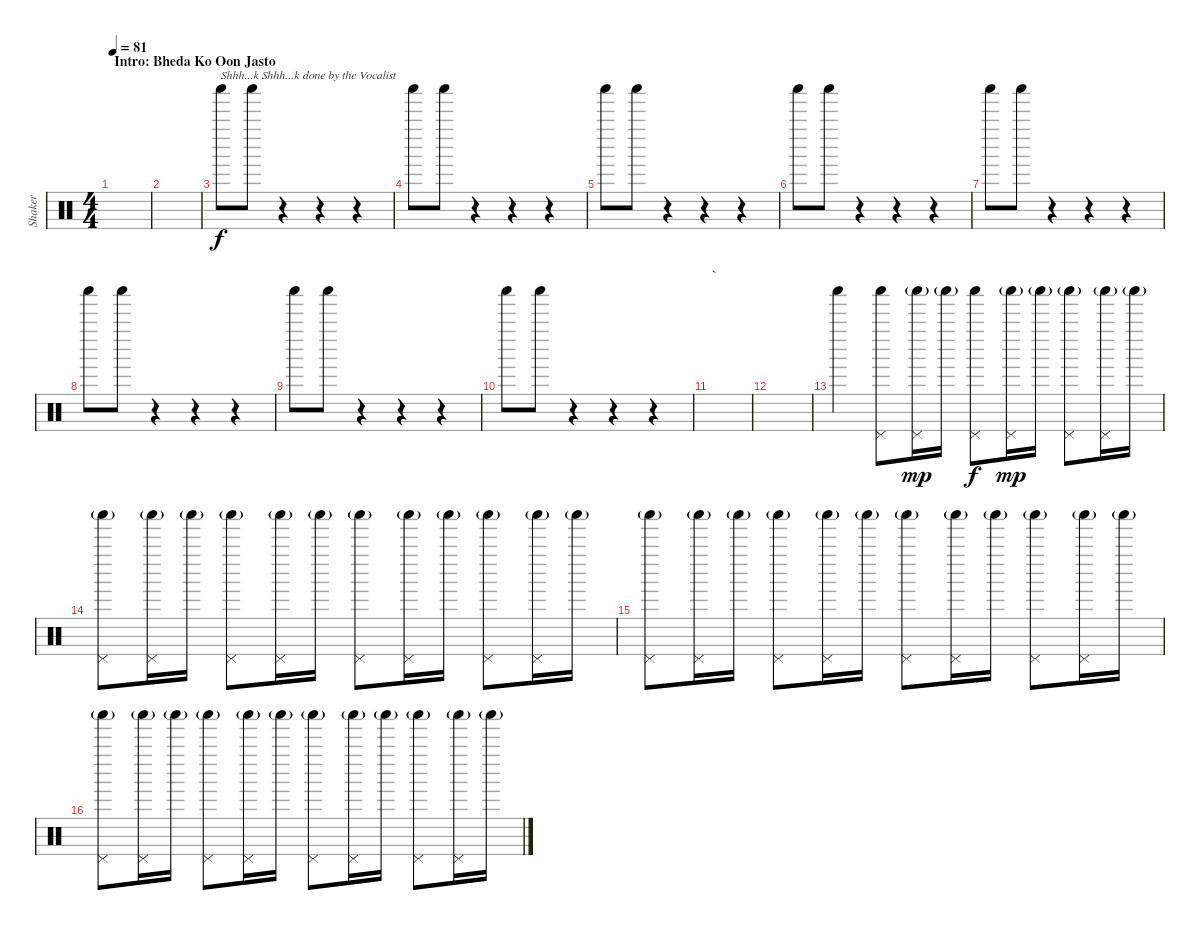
\track ("Shaker" "Shaker") {instrument percussion}
\staff {score}
\articulation defaults
\ts (4 4)
\section ("" "Intro: Bheda Ko Oon Jasto")
\tempo 81
\clef neutral
\ks c
|
|
"Shaker (hit)".8{txt "Shhh...k Shhh...k done by the Vocalist"} "Shaker (hit)".8 r.4 r.4 r.4 |
"Shaker (hit)".8 "Shaker (hit)".8 r.4 r.4 r.4 |
"Shaker (hit)".8 "Shaker (hit)".8 r.4 r.4 r.4 |
"Shaker (hit)".8 "Shaker (hit)".8 r.4 r.4 r.4 |
"Shaker (hit)".8 "Shaker (hit)".8 r.4 r.4 r.4 |
"Shaker (hit)".8 "Shaker (hit)".8 r.4 r.4 r.4 |
"Shaker (hit)".8 "Shaker (hit)".8 r.4 r.4 r.4 |
"Shaker (hit)".8 "Shaker (hit)".8 r.4 r.4 r.4 |
\section ("" "`")
|
|
"Shaker (hit)".4 ("Pedal Hi-Hat (hit)" "Shaker (hit)").8 ("Pedal Hi-Hat (hit)" "Shaker (hit)"{g}).16{dy mp} "Shaker (hit)"{g}.16 ("Pedal Hi-Hat (hit)" "Shaker (hit)").8{dy f} ("Pedal Hi-Hat (hit)" "Shaker (hit)"{g}).16{dy mp} "Shaker (hit)"{g}.16 ("Pedal Hi-Hat (hit)" "Shaker (hit)"{g}).8 ("Pedal Hi-Hat (hit)" "Shaker (hit)"{g}).16 "Shaker (hit)"{g}.16 |
("Pedal Hi-Hat (hit)" "Shaker (hit)"{g}).8 ("Pedal Hi-Hat (hit)" "Shaker (hit)"{g}).16 "Shaker (hit)"{g}.16 ("Pedal Hi-Hat (hit)" "Shaker (hit)"{g}).8 ("Pedal Hi-Hat (hit)" "Shaker (hit)"{g}).16 "Shaker (hit)"{g}.16 ("Pedal Hi-Hat (hit)" "Shaker (hit)"{g}).8 ("Pedal Hi-Hat (hit)" "Shaker (hit)"{g}).16 "Shaker (hit)"{g}.16 ("Pedal Hi-Hat (hit)" "Shaker (hit)"{g}).8 ("Pedal Hi-Hat (hit)" "Shaker (hit)"{g}).16 "Shaker (hit)"{g}.16 |
("Pedal Hi-Hat (hit)" "Shaker (hit)"{g}).8 ("Pedal Hi-Hat (hit)" "Shaker (hit)"{g}).16 "Shaker (hit)"{g}.16 ("Pedal Hi-Hat (hit)" "Shaker (hit)"{g}).8 ("Pedal Hi-Hat (hit)" "Shaker (hit)"{g}).16 "Shaker (hit)"{g}.16 ("Pedal Hi-Hat (hit)" "Shaker (hit)"{g}).8 ("Pedal Hi-Hat (hit)" "Shaker (hit)"{g}).16 "Shaker (hit)"{g}.16 ("Pedal Hi-Hat (hit)" "Shaker (hit)"{g}).8 ("Pedal Hi-Hat (hit)" "Shaker (hit)"{g}).16 "Shaker (hit)"{g}.16 |
("Pedal Hi-Hat (hit)" "Shaker (hit)"{g}).8 ("Pedal Hi-Hat (hit)" "Shaker (hit)"{g}).16 "Shaker (hit)"{g}.16 ("Pedal Hi-Hat (hit)" "Shaker (hit)"{g}).8 ("Pedal Hi-Hat (hit)" "Shaker (hit)"{g}).16 "Shaker (hit)"{g}.16 ("Pedal Hi-Hat (hit)" "Shaker (hit)"{g}).8 ("Pedal Hi-Hat (hit)" "Shaker (hit)"{g}).16 "Shaker (hit)"{g}.16 ("Pedal Hi-Hat (hit)" "Shaker (hit)"{g}).8 ("Pedal Hi-Hat (hit)" "Shaker (hit)"{g}).16 "Shaker (hit)"{g}.16
